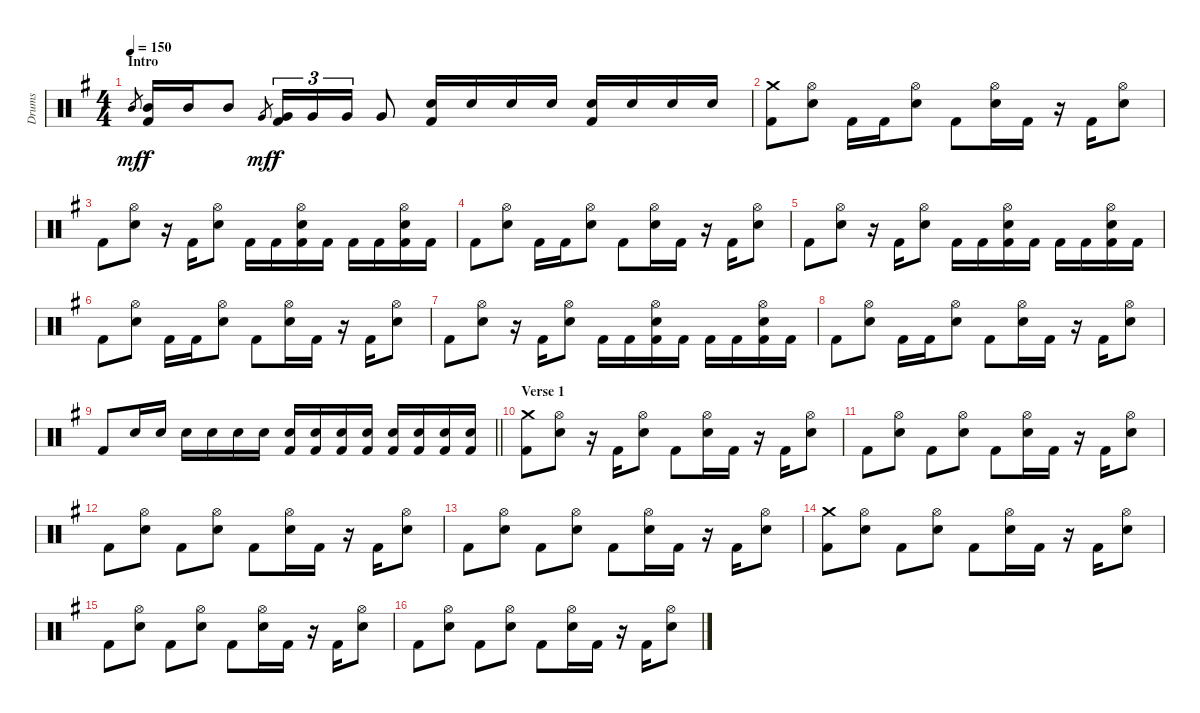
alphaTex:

\track ("Drums" "Drums") {instrument percussion}
\staff {score}
\articulation defaults
\ts (4 4)
\section ("" "Intro")
\tempo 150
\clef neutral
\ks eminor "Mid Tom (hit)".8{gr dy mf}
("Mid Tom (hit)" "Kick (hit) 2").16{dy f} "Mid Tom (hit)".16 "Mid Tom (hit)".8 "Very Low Tom (hit)".8{gr dy mf} ("Very Low Tom (hit)" "Kick (hit) 2").16{tu (3 2) dy f} "Very Low Tom (hit)".16{tu (3 2)} "Very Low Tom (hit)".16{tu (3 2)} "Very Low Tom (hit)".8 ("Electric Snare (hit)" "Kick (hit) 2").16 "Electric Snare (hit)".16 "Electric Snare (hit)".16 "Electric Snare (hit)".16 ("Electric Snare (hit)" "Kick (hit) 2").16 "Electric Snare (hit)".16 "Electric Snare (hit)".16 "Electric Snare (hit)".16 |
("Crash medium (hit)" "Kick (hit) 2").8 ("Hi-Hat (open)" "Electric Snare (hit)").8 "Kick (hit) 2".16 "Kick (hit) 2".16 ("Hi-Hat (open)" "Electric Snare (hit)").8 "Kick (hit) 2".8 ("Hi-Hat (open)" "Electric Snare (hit)").16 "Kick (hit) 2".16 r.16 "Kick (hit) 2".16 ("Hi-Hat (open)" "Electric Snare (hit)").8 |
"Kick (hit) 2".8 ("Hi-Hat (open)" "Electric Snare (hit)").8 r.16 "Kick (hit) 2".16 ("Hi-Hat (open)" "Electric Snare (hit)").8 "Kick (hit) 2".16 "Kick (hit) 2".16 ("Hi-Hat (open)" "Electric Snare (hit)" "Kick (hit) 2").16 "Kick (hit) 2".16 "Kick (hit) 2".16 "Kick (hit) 2".16 ("Hi-Hat (open)" "Electric Snare (hit)" "Kick (hit) 2").16 "Kick (hit) 2".16 |
"Kick (hit) 2".8 ("Hi-Hat (open)" "Electric Snare (hit)").8 "Kick (hit) 2".16 "Kick (hit) 2".16 ("Hi-Hat (open)" "Electric Snare (hit)").8 "Kick (hit) 2".8 ("Hi-Hat (open)" "Electric Snare (hit)").16 "Kick (hit) 2".16 r.16 "Kick (hit) 2".16 ("Hi-Hat (open)" "Electric Snare (hit)").8 |
"Kick (hit) 2".8 ("Hi-Hat (open)" "Electric Snare (hit)").8 r.16 "Kick (hit) 2".16 ("Hi-Hat (open)" "Electric Snare (hit)").8 "Kick (hit) 2".16 "Kick (hit) 2".16 ("Hi-Hat (open)" "Electric Snare (hit)" "Kick (hit) 2").16 "Kick (hit) 2".16 "Kick (hit) 2".16 "Kick (hit) 2".16 ("Hi-Hat (open)" "Electric Snare (hit)" "Kick (hit) 2").16 "Kick (hit) 2".16 |
"Kick (hit) 2".8 ("Hi-Hat (open)" "Electric Snare (hit)").8 "Kick (hit) 2".16 "Kick (hit) 2".16 ("Hi-Hat (open)" "Electric Snare (hit)").8 "Kick (hit) 2".8 ("Hi-Hat (open)" "Electric Snare (hit)").16 "Kick (hit) 2".16 r.16 "Kick (hit) 2".16 ("Hi-Hat (open)" "Electric Snare (hit)").8 |
"Kick (hit) 2".8 ("Hi-Hat (open)" "Electric Snare (hit)").8 r.16 "Kick (hit) 2".16 ("Hi-Hat (open)" "Electric Snare (hit)").8 "Kick (hit) 2".16 "Kick (hit) 2".16 ("Hi-Hat (open)" "Electric Snare (hit)" "Kick (hit) 2").16 "Kick (hit) 2".16 "Kick (hit) 2".16 "Kick (hit) 2".16 ("Hi-Hat (open)" "Electric Snare (hit)" "Kick (hit) 2").16 "Kick (hit) 2".16 |
"Kick (hit) 2".8 ("Hi-Hat (open)" "Electric Snare (hit)").8 "Kick (hit) 2".16 "Kick (hit) 2".16 ("Hi-Hat (open)" "Electric Snare (hit)").8 "Kick (hit) 2".8 ("Hi-Hat (open)" "Electric Snare (hit)").16 "Kick (hit) 2".16 r.16 "Kick (hit) 2".16 ("Hi-Hat (open)" "Electric Snare (hit)").8 |
\barLineRight lightlight "Kick (hit) 2".8 "Electric Snare (hit)".16 "Electric Snare (hit)".16 "Electric Snare (hit)".16 "Electric Snare (hit)".16 "Electric Snare (hit)".16 "Electric Snare (hit)".16
("Electric Snare (hit)" "Kick (hit) 2").16 ("Electric Snare (hit)" "Kick (hit) 2").16 ("Electric Snare (hit)" "Kick (hit) 2").16 ("Electric Snare (hit)" "Kick (hit) 2").16 ("Electric Snare (hit)" "Kick (hit) 2").16 ("Electric Snare (hit)" "Kick (hit) 2").16 ("Electric Snare (hit)" "Kick (hit) 2").16 ("Electric Snare (hit)" "Kick (hit) 2").16 |
\section ("" "Verse 1")
("Crash medium (hit)" "Kick (hit) 2").8 ("Hi-Hat (open)" "Electric Snare (hit)").8 r.16 "Kick (hit) 2".16 ("Hi-Hat (open)" "Electric Snare (hit)").8 "Kick (hit) 2".8 ("Hi-Hat (open)" "Electric Snare (hit)").16 "Kick (hit) 2".16 r.16 "Kick (hit) 2".16 ("Hi-Hat (open)" "Electric Snare (hit)").8 |
"Kick (hit) 2".8 ("Hi-Hat (open)" "Electric Snare (hit)").8 "Kick (hit) 2".8 ("Hi-Hat (open)" "Electric Snare (hit)").8 "Kick (hit) 2".8 ("Hi-Hat (open)" "Electric Snare (hit)").16 "Kick (hit) 2".16 r.16 "Kick (hit) 2".16 ("Hi-Hat (open)" "Electric Snare (hit)").8 |
"Kick (hit) 2".8 ("Hi-Hat (open)" "Electric Snare (hit)").8 "Kick (hit) 2".8 ("Hi-Hat (open)" "Electric Snare (hit)").8 "Kick (hit) 2".8 ("Hi-Hat (open)" "Electric Snare (hit)").16 "Kick (hit) 2".16 r.16 "Kick (hit) 2".16 ("Hi-Hat (open)" "Electric Snare (hit)").8 |
"Kick (hit) 2".8 ("Hi-Hat (open)" "Electric Snare (hit)").8 "Kick (hit) 2".8 ("Hi-Hat (open)" "Electric Snare (hit)").8 "Kick (hit) 2".8 ("Hi-Hat (open)" "Electric Snare (hit)").16 "Kick (hit) 2".16 r.16 "Kick (hit) 2".16 ("Hi-Hat (open)" "Electric Snare (hit)").8 |
("Crash medium (hit)" "Kick (hit) 2").8 ("Hi-Hat (open)" "Electric Snare (hit)").8 "Kick (hit) 2".8 ("Hi-Hat (open)" "Electric Snare (hit)").8 "Kick (hit) 2".8 ("Hi-Hat (open)" "Electric Snare (hit)").16 "Kick (hit) 2".16 r.16 "Kick (hit) 2".16 ("Hi-Hat (open)" "Electric Snare (hit)").8 |
"Kick (hit) 2".8 ("Hi-Hat (open)" "Electric Snare (hit)").8 "Kick (hit) 2".8 ("Hi-Hat (open)" "Electric Snare (hit)").8 "Kick (hit) 2".8 ("Hi-Hat (open)" "Electric Snare (hit)").16 "Kick (hit) 2".16 r.16 "Kick (hit) 2".16 ("Hi-Hat (open)" "Electric Snare (hit)").8 |
"Kick (hit) 2".8 ("Hi-Hat (open)" "Electric Snare (hit)").8 "Kick (hit) 2".8 ("Hi-Hat (open)" "Electric Snare (hit)").8 "Kick (hit) 2".8 ("Hi-Hat (open)" "Electric Snare (hit)").16 "Kick (hit) 2".16 r.16 "Kick (hit) 2".16 ("Hi-Hat (open)" "Electric Snare (hit)").8
